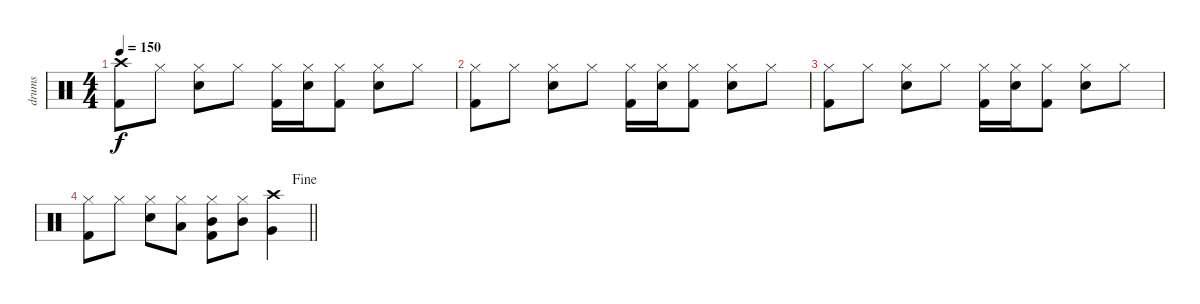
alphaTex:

\track ("drums" "drums") {instrument percussion}
\staff {score}
\articulation defaults
\ts (4 4)
\tempo 150
\clef neutral
\ks c
("Crash high (hit)" "Kick (hit) 2").8{dy f} "Hi-Hat (closed)".8 ("Hi-Hat (closed)" "Electric Snare (hit)").8 "Hi-Hat (closed)".8 ("Hi-Hat (closed)" "Kick (hit) 2").16 ("Hi-Hat (closed)" "Electric Snare (hit)").16 ("Hi-Hat (closed)" "Kick (hit) 2").8 ("Hi-Hat (closed)" "Electric Snare (hit)").8 "Hi-Hat (closed)".8 |
("Hi-Hat (closed)" "Kick (hit) 2").8 "Hi-Hat (closed)".8 ("Hi-Hat (closed)" "Electric Snare (hit)").8 "Hi-Hat (closed)".8 ("Hi-Hat (closed)" "Kick (hit) 2").16 ("Hi-Hat (closed)" "Electric Snare (hit)").16 ("Hi-Hat (closed)" "Kick (hit) 2").8 ("Hi-Hat (closed)" "Electric Snare (hit)").8 "Hi-Hat (closed)".8 |
("Hi-Hat (closed)" "Kick (hit) 2").8 "Hi-Hat (closed)".8 ("Hi-Hat (closed)" "Electric Snare (hit)").8 "Hi-Hat (closed)".8 ("Hi-Hat (closed)" "Kick (hit) 2").16 ("Hi-Hat (closed)" "Electric Snare (hit)").16 ("Hi-Hat (closed)" "Kick (hit) 2").8 ("Hi-Hat (closed)" "Electric Snare (hit)").8 "Hi-Hat (closed)".8 |
\jump fine
\barLineRight lightlight
("Hi-Hat (closed)" "Kick (hit) 2").8 "Hi-Hat (closed)".8 ("Hi-Hat (closed)" "Electric Snare (hit)").8 ("Hi-Hat (closed)" "Low Tom (hit)").8 ("Hi-Hat (closed)" "Mid Tom (hit)" "Kick (hit) 2").8 ("Hi-Hat (closed)" "Mid Tom (hit)").8 ("Crash high (hit)" "Very Low Tom (hit)").4
